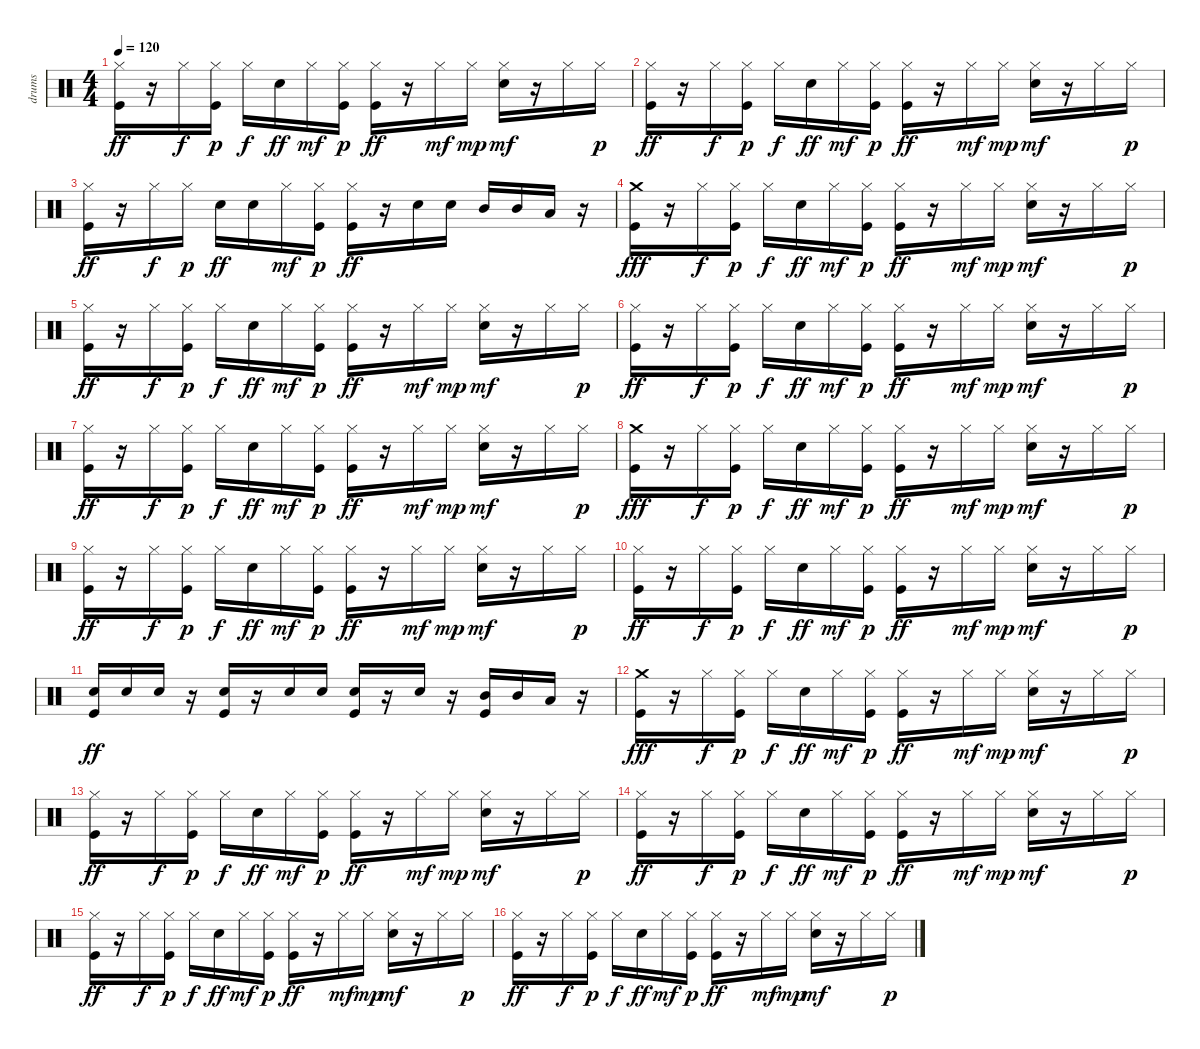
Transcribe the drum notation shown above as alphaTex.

\track ("drums" "drums") {instrument percussion}
\staff {score}
\articulation defaults
\ts (4 4)
\tempo 120
\clef neutral
\ks c
("Kick (hit)" "Hi-Hat (closed)").16{dy ff} r.16 "Hi-Hat (closed)".16{dy f} ("Kick (hit)" "Hi-Hat (closed)").16{dy p} "Hi-Hat (closed)".16{dy f} "Electric Snare (hit)".16{dy ff} "Hi-Hat (closed)".16{dy mf} ("Kick (hit)" "Hi-Hat (closed)").16{dy p} ("Kick (hit)" "Hi-Hat (closed)").16{dy ff} r.16 "Hi-Hat (closed)".16{dy mf} "Hi-Hat (closed)".16{dy mp} ("Electric Snare (hit)" "Hi-Hat (closed)").16{dy mf} r.16 "Hi-Hat (closed)".16 "Hi-Hat (closed)".16{dy p} |
("Kick (hit)" "Hi-Hat (closed)").16{dy ff} r.16 "Hi-Hat (closed)".16{dy f} ("Kick (hit)" "Hi-Hat (closed)").16{dy p} "Hi-Hat (closed)".16{dy f} "Electric Snare (hit)".16{dy ff} "Hi-Hat (closed)".16{dy mf} ("Kick (hit)" "Hi-Hat (closed)").16{dy p} ("Kick (hit)" "Hi-Hat (closed)").16{dy ff} r.16 "Hi-Hat (closed)".16{dy mf} "Hi-Hat (closed)".16{dy mp} ("Electric Snare (hit)" "Hi-Hat (closed)").16{dy mf} r.16 "Hi-Hat (closed)".16 "Hi-Hat (closed)".16{dy p} |
("Kick (hit)" "Hi-Hat (closed)").16{dy ff} r.16 "Hi-Hat (closed)".16{dy f} "Hi-Hat (closed)".16{dy p} "Electric Snare (hit)".16{dy ff} "Electric Snare (hit)".16 "Hi-Hat (closed)".16{dy mf} ("Kick (hit)" "Hi-Hat (closed)").16{dy p} ("Kick (hit)" "Hi-Hat (closed)").16{dy ff} r.16 "Electric Snare (hit)".16 "Electric Snare (hit)".16 "Mid Tom (hit)".16 "Mid Tom (hit)".16 "Low Tom (hit)".16 r.16 |
("Kick (hit)" "Crash medium (hit)").16{dy fff} r.16 "Hi-Hat (closed)".16{dy f} ("Kick (hit)" "Hi-Hat (closed)").16{dy p} "Hi-Hat (closed)".16{dy f} "Electric Snare (hit)".16{dy ff} "Hi-Hat (closed)".16{dy mf} ("Kick (hit)" "Hi-Hat (closed)").16{dy p} ("Kick (hit)" "Hi-Hat (closed)").16{dy ff} r.16 "Hi-Hat (closed)".16{dy mf} "Hi-Hat (closed)".16{dy mp} ("Electric Snare (hit)" "Hi-Hat (closed)").16{dy mf} r.16 "Hi-Hat (closed)".16 "Hi-Hat (closed)".16{dy p} |
("Kick (hit)" "Hi-Hat (closed)").16{dy ff} r.16 "Hi-Hat (closed)".16{dy f} ("Kick (hit)" "Hi-Hat (closed)").16{dy p} "Hi-Hat (closed)".16{dy f} "Electric Snare (hit)".16{dy ff} "Hi-Hat (closed)".16{dy mf} ("Kick (hit)" "Hi-Hat (closed)").16{dy p} ("Kick (hit)" "Hi-Hat (closed)").16{dy ff} r.16 "Hi-Hat (closed)".16{dy mf} "Hi-Hat (closed)".16{dy mp} ("Electric Snare (hit)" "Hi-Hat (closed)").16{dy mf} r.16 "Hi-Hat (closed)".16 "Hi-Hat (closed)".16{dy p} |
("Kick (hit)" "Hi-Hat (closed)").16{dy ff} r.16 "Hi-Hat (closed)".16{dy f} ("Kick (hit)" "Hi-Hat (closed)").16{dy p} "Hi-Hat (closed)".16{dy f} "Electric Snare (hit)".16{dy ff} "Hi-Hat (closed)".16{dy mf} ("Kick (hit)" "Hi-Hat (closed)").16{dy p} ("Kick (hit)" "Hi-Hat (closed)").16{dy ff} r.16 "Hi-Hat (closed)".16{dy mf} "Hi-Hat (closed)".16{dy mp} ("Electric Snare (hit)" "Hi-Hat (closed)").16{dy mf} r.16 "Hi-Hat (closed)".16 "Hi-Hat (closed)".16{dy p} |
("Kick (hit)" "Hi-Hat (closed)").16{dy ff} r.16 "Hi-Hat (closed)".16{dy f} ("Kick (hit)" "Hi-Hat (closed)").16{dy p} "Hi-Hat (closed)".16{dy f} "Electric Snare (hit)".16{dy ff} "Hi-Hat (closed)".16{dy mf} ("Kick (hit)" "Hi-Hat (closed)").16{dy p} ("Kick (hit)" "Hi-Hat (closed)").16{dy ff} r.16 "Hi-Hat (closed)".16{dy mf} "Hi-Hat (closed)".16{dy mp} ("Electric Snare (hit)" "Hi-Hat (closed)").16{dy mf} r.16 "Hi-Hat (closed)".16 "Hi-Hat (closed)".16{dy p} |
("Kick (hit)" "Crash medium (hit)").16{dy fff} r.16 "Hi-Hat (closed)".16{dy f} ("Kick (hit)" "Hi-Hat (closed)").16{dy p} "Hi-Hat (closed)".16{dy f} "Electric Snare (hit)".16{dy ff} "Hi-Hat (closed)".16{dy mf} ("Kick (hit)" "Hi-Hat (closed)").16{dy p} ("Kick (hit)" "Hi-Hat (closed)").16{dy ff} r.16 "Hi-Hat (closed)".16{dy mf} "Hi-Hat (closed)".16{dy mp} ("Electric Snare (hit)" "Hi-Hat (closed)").16{dy mf} r.16 "Hi-Hat (closed)".16 "Hi-Hat (closed)".16{dy p} |
("Kick (hit)" "Hi-Hat (closed)").16{dy ff} r.16 "Hi-Hat (closed)".16{dy f} ("Kick (hit)" "Hi-Hat (closed)").16{dy p} "Hi-Hat (closed)".16{dy f} "Electric Snare (hit)".16{dy ff} "Hi-Hat (closed)".16{dy mf} ("Kick (hit)" "Hi-Hat (closed)").16{dy p} ("Kick (hit)" "Hi-Hat (closed)").16{dy ff} r.16 "Hi-Hat (closed)".16{dy mf} "Hi-Hat (closed)".16{dy mp} ("Electric Snare (hit)" "Hi-Hat (closed)").16{dy mf} r.16 "Hi-Hat (closed)".16 "Hi-Hat (closed)".16{dy p} |
("Kick (hit)" "Hi-Hat (closed)").16{dy ff} r.16 "Hi-Hat (closed)".16{dy f} ("Kick (hit)" "Hi-Hat (closed)").16{dy p} "Hi-Hat (closed)".16{dy f} "Electric Snare (hit)".16{dy ff} "Hi-Hat (closed)".16{dy mf} ("Kick (hit)" "Hi-Hat (closed)").16{dy p} ("Kick (hit)" "Hi-Hat (closed)").16{dy ff} r.16 "Hi-Hat (closed)".16{dy mf} "Hi-Hat (closed)".16{dy mp} ("Electric Snare (hit)" "Hi-Hat (closed)").16{dy mf} r.16 "Hi-Hat (closed)".16 "Hi-Hat (closed)".16{dy p} |
("Electric Snare (hit)" "Kick (hit)").16{dy ff} "Electric Snare (hit)".16 "Electric Snare (hit)".16 r.16 ("Electric Snare (hit)" "Kick (hit)").16 r.16 "Electric Snare (hit)".16 "Electric Snare (hit)".16 ("Electric Snare (hit)" "Kick (hit)").16 r.16 "Electric Snare (hit)".16 r.16 ("Kick (hit)" "Mid Tom (hit)").16 "Mid Tom (hit)".16 "Low Tom (hit)".16 r.16 |
("Kick (hit)" "Crash medium (hit)").16{dy fff} r.16 "Hi-Hat (closed)".16{dy f} ("Kick (hit)" "Hi-Hat (closed)").16{dy p} "Hi-Hat (closed)".16{dy f} "Electric Snare (hit)".16{dy ff} "Hi-Hat (closed)".16{dy mf} ("Kick (hit)" "Hi-Hat (closed)").16{dy p} ("Kick (hit)" "Hi-Hat (closed)").16{dy ff} r.16 "Hi-Hat (closed)".16{dy mf} "Hi-Hat (closed)".16{dy mp} ("Electric Snare (hit)" "Hi-Hat (closed)").16{dy mf} r.16 "Hi-Hat (closed)".16 "Hi-Hat (closed)".16{dy p} |
("Kick (hit)" "Hi-Hat (closed)").16{dy ff} r.16 "Hi-Hat (closed)".16{dy f} ("Kick (hit)" "Hi-Hat (closed)").16{dy p} "Hi-Hat (closed)".16{dy f} "Electric Snare (hit)".16{dy ff} "Hi-Hat (closed)".16{dy mf} ("Kick (hit)" "Hi-Hat (closed)").16{dy p} ("Kick (hit)" "Hi-Hat (closed)").16{dy ff} r.16 "Hi-Hat (closed)".16{dy mf} "Hi-Hat (closed)".16{dy mp} ("Electric Snare (hit)" "Hi-Hat (closed)").16{dy mf} r.16 "Hi-Hat (closed)".16 "Hi-Hat (closed)".16{dy p} |
("Kick (hit)" "Hi-Hat (closed)").16{dy ff} r.16 "Hi-Hat (closed)".16{dy f} ("Kick (hit)" "Hi-Hat (closed)").16{dy p} "Hi-Hat (closed)".16{dy f} "Electric Snare (hit)".16{dy ff} "Hi-Hat (closed)".16{dy mf} ("Kick (hit)" "Hi-Hat (closed)").16{dy p} ("Kick (hit)" "Hi-Hat (closed)").16{dy ff} r.16 "Hi-Hat (closed)".16{dy mf} "Hi-Hat (closed)".16{dy mp} ("Electric Snare (hit)" "Hi-Hat (closed)").16{dy mf} r.16 "Hi-Hat (closed)".16 "Hi-Hat (closed)".16{dy p} |
("Kick (hit)" "Hi-Hat (closed)").16{dy ff} r.16 "Hi-Hat (closed)".16{dy f} ("Kick (hit)" "Hi-Hat (closed)").16{dy p} "Hi-Hat (closed)".16{dy f} "Electric Snare (hit)".16{dy ff} "Hi-Hat (closed)".16{dy mf} ("Kick (hit)" "Hi-Hat (closed)").16{dy p} ("Kick (hit)" "Hi-Hat (closed)").16{dy ff} r.16 "Hi-Hat (closed)".16{dy mf} "Hi-Hat (closed)".16{dy mp} ("Electric Snare (hit)" "Hi-Hat (closed)").16{dy mf} r.16 "Hi-Hat (closed)".16 "Hi-Hat (closed)".16{dy p} |
("Kick (hit)" "Hi-Hat (closed)").16{dy ff} r.16 "Hi-Hat (closed)".16{dy f} ("Kick (hit)" "Hi-Hat (closed)").16{dy p} "Hi-Hat (closed)".16{dy f} "Electric Snare (hit)".16{dy ff} "Hi-Hat (closed)".16{dy mf} ("Kick (hit)" "Hi-Hat (closed)").16{dy p} ("Kick (hit)" "Hi-Hat (closed)").16{dy ff} r.16 "Hi-Hat (closed)".16{dy mf} "Hi-Hat (closed)".16{dy mp} ("Electric Snare (hit)" "Hi-Hat (closed)").16{dy mf} r.16 "Hi-Hat (closed)".16 "Hi-Hat (closed)".16{dy p}
